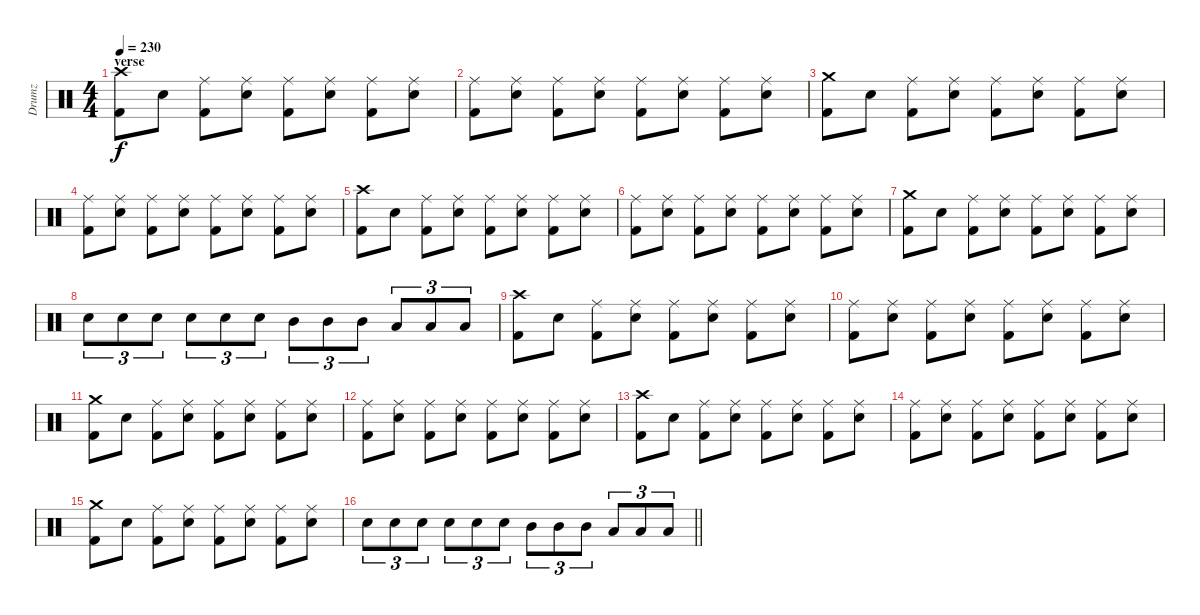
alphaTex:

\track ("Drumz" "Drumz") {instrument percussion}
\staff {score}
\articulation defaults
\ts (4 4)
\section ("" "verse")
\tempo 230
\clef neutral
\ks c
("Crash high (hit)" "Kick (hit) 2").8{dy f} "Electric Snare (hit)".8 ("Ride (middle)" "Kick (hit) 2").8 ("Ride (middle)" "Electric Snare (hit)").8 ("Ride (middle)" "Kick (hit) 2").8 ("Ride (middle)" "Electric Snare (hit)").8 ("Ride (middle)" "Kick (hit) 2").8 ("Ride (middle)" "Electric Snare (hit)").8 |
("Ride (middle)" "Kick (hit) 2").8 ("Ride (middle)" "Electric Snare (hit)").8 ("Ride (middle)" "Kick (hit) 2").8 ("Ride (middle)" "Electric Snare (hit)").8 ("Ride (middle)" "Kick (hit) 2").8 ("Ride (middle)" "Electric Snare (hit)").8 ("Ride (middle)" "Kick (hit) 2").8 ("Ride (middle)" "Electric Snare (hit)").8 |
("Crash medium (hit)" "Kick (hit) 2").8 "Electric Snare (hit)".8 ("Ride (middle)" "Kick (hit) 2").8 ("Ride (middle)" "Electric Snare (hit)").8 ("Ride (middle)" "Kick (hit) 2").8 ("Ride (middle)" "Electric Snare (hit)").8 ("Ride (middle)" "Kick (hit) 2").8 ("Ride (middle)" "Electric Snare (hit)").8 |
("Ride (middle)" "Kick (hit) 2").8 ("Ride (middle)" "Electric Snare (hit)").8 ("Ride (middle)" "Kick (hit) 2").8 ("Ride (middle)" "Electric Snare (hit)").8 ("Ride (middle)" "Kick (hit) 2").8 ("Ride (middle)" "Electric Snare (hit)").8 ("Ride (middle)" "Kick (hit) 2").8 ("Ride (middle)" "Electric Snare (hit)").8 |
("Crash high (hit)" "Kick (hit) 2").8 "Electric Snare (hit)".8 ("Ride (middle)" "Kick (hit) 2").8 ("Ride (middle)" "Electric Snare (hit)").8 ("Ride (middle)" "Kick (hit) 2").8 ("Ride (middle)" "Electric Snare (hit)").8 ("Ride (middle)" "Kick (hit) 2").8 ("Ride (middle)" "Electric Snare (hit)").8 |
("Ride (middle)" "Kick (hit) 2").8 ("Ride (middle)" "Electric Snare (hit)").8 ("Ride (middle)" "Kick (hit) 2").8 ("Ride (middle)" "Electric Snare (hit)").8 ("Ride (middle)" "Kick (hit) 2").8 ("Ride (middle)" "Electric Snare (hit)").8 ("Ride (middle)" "Kick (hit) 2").8 ("Ride (middle)" "Electric Snare (hit)").8 |
("Crash medium (hit)" "Kick (hit) 2").8 "Electric Snare (hit)".8 ("Ride (middle)" "Kick (hit) 2").8 ("Ride (middle)" "Electric Snare (hit)").8 ("Ride (middle)" "Kick (hit) 2").8 ("Ride (middle)" "Electric Snare (hit)").8 ("Ride (middle)" "Kick (hit) 2").8 ("Ride (middle)" "Electric Snare (hit)").8 |
"Electric Snare (hit)".8{tu (3 2)} "Electric Snare (hit)".8{tu (3 2)} "Electric Snare (hit)".8{tu (3 2)} "Electric Snare (hit)".8{tu (3 2)} "Electric Snare (hit)".8{tu (3 2)} "Electric Snare (hit)".8{tu (3 2)} "Mid Tom (hit)".8{tu (3 2)} "Mid Tom (hit)".8{tu (3 2)} "Mid Tom (hit)".8{tu (3 2)} "Low Tom (hit)".8{tu (3 2)} "Low Tom (hit)".8{tu (3 2)} "Low Tom (hit)".8{tu (3 2)} |
("Crash high (hit)" "Kick (hit) 2").8 "Electric Snare (hit)".8 ("Ride (middle)" "Kick (hit) 2").8 ("Ride (middle)" "Electric Snare (hit)").8 ("Ride (middle)" "Kick (hit) 2").8 ("Ride (middle)" "Electric Snare (hit)").8 ("Ride (middle)" "Kick (hit) 2").8 ("Ride (middle)" "Electric Snare (hit)").8 |
("Ride (middle)" "Kick (hit) 2").8 ("Ride (middle)" "Electric Snare (hit)").8 ("Ride (middle)" "Kick (hit) 2").8 ("Ride (middle)" "Electric Snare (hit)").8 ("Ride (middle)" "Kick (hit) 2").8 ("Ride (middle)" "Electric Snare (hit)").8 ("Ride (middle)" "Kick (hit) 2").8 ("Ride (middle)" "Electric Snare (hit)").8 |
("Crash medium (hit)" "Kick (hit) 2").8 "Electric Snare (hit)".8 ("Ride (middle)" "Kick (hit) 2").8 ("Ride (middle)" "Electric Snare (hit)").8 ("Ride (middle)" "Kick (hit) 2").8 ("Ride (middle)" "Electric Snare (hit)").8 ("Ride (middle)" "Kick (hit) 2").8 ("Ride (middle)" "Electric Snare (hit)").8 |
("Ride (middle)" "Kick (hit) 2").8 ("Ride (middle)" "Electric Snare (hit)").8 ("Ride (middle)" "Kick (hit) 2").8 ("Ride (middle)" "Electric Snare (hit)").8 ("Ride (middle)" "Kick (hit) 2").8 ("Ride (middle)" "Electric Snare (hit)").8 ("Ride (middle)" "Kick (hit) 2").8 ("Ride (middle)" "Electric Snare (hit)").8 |
("Crash high (hit)" "Kick (hit) 2").8 "Electric Snare (hit)".8 ("Ride (middle)" "Kick (hit) 2").8 ("Ride (middle)" "Electric Snare (hit)").8 ("Ride (middle)" "Kick (hit) 2").8 ("Ride (middle)" "Electric Snare (hit)").8 ("Ride (middle)" "Kick (hit) 2").8 ("Ride (middle)" "Electric Snare (hit)").8 |
("Ride (middle)" "Kick (hit) 2").8 ("Ride (middle)" "Electric Snare (hit)").8 ("Ride (middle)" "Kick (hit) 2").8 ("Ride (middle)" "Electric Snare (hit)").8 ("Ride (middle)" "Kick (hit) 2").8 ("Ride (middle)" "Electric Snare (hit)").8 ("Ride (middle)" "Kick (hit) 2").8 ("Ride (middle)" "Electric Snare (hit)").8 |
("Crash medium (hit)" "Kick (hit) 2").8 "Electric Snare (hit)".8 ("Ride (middle)" "Kick (hit) 2").8 ("Ride (middle)" "Electric Snare (hit)").8 ("Ride (middle)" "Kick (hit) 2").8 ("Ride (middle)" "Electric Snare (hit)").8 ("Ride (middle)" "Kick (hit) 2").8 ("Ride (middle)" "Electric Snare (hit)").8 |
\barLineRight lightlight "Electric Snare (hit)".8{tu (3 2)} "Electric Snare (hit)".8{tu (3 2)} "Electric Snare (hit)".8{tu (3 2)} "Electric Snare (hit)".8{tu (3 2)} "Electric Snare (hit)".8{tu (3 2)} "Electric Snare (hit)".8{tu (3 2)} "Mid Tom (hit)".8{tu (3 2)} "Mid Tom (hit)".8{tu (3 2)} "Mid Tom (hit)".8{tu (3 2)} "Low Tom (hit)".8{tu (3 2)} "Low Tom (hit)".8{tu (3 2)} "Low Tom (hit)".8{tu (3 2)}
